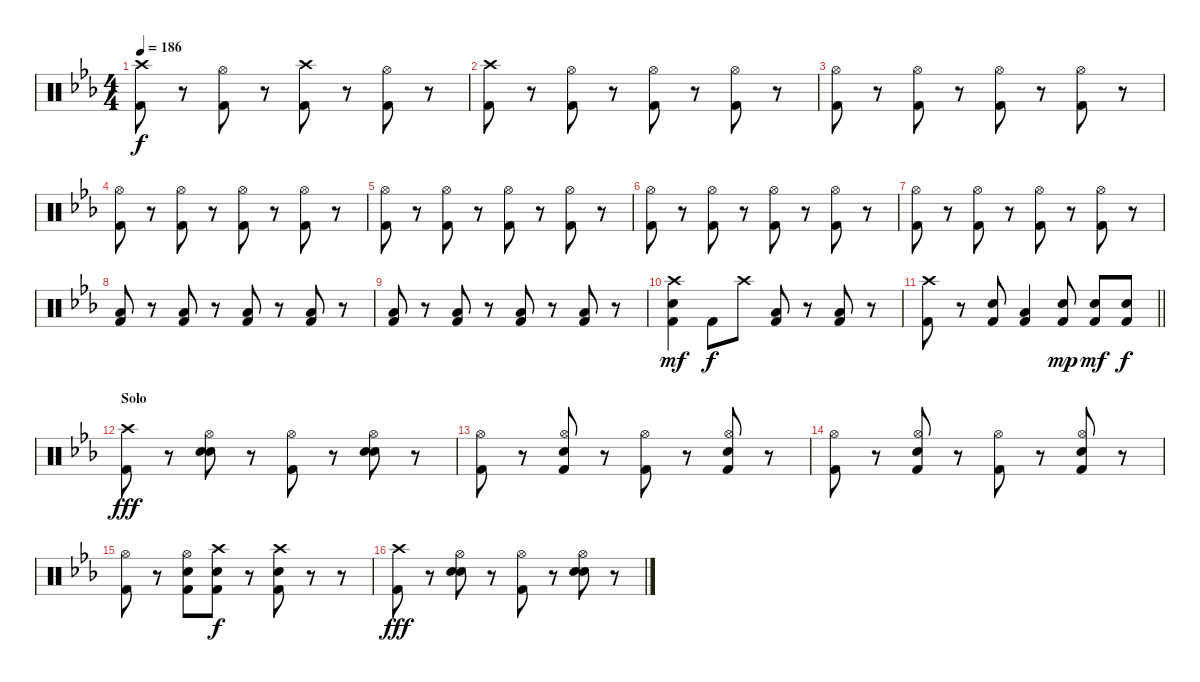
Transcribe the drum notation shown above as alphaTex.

\track "" {instrument percussion}
\staff {score}
\articulation defaults
\ts (4 4)
\tempo 186
\clef neutral
\ks eb
("Crash high (hit)" "Kick (hit) 2").8{dy f} r.8 ("Hi-Hat (open)" "Kick (hit) 2").8 r.8 ("Crash high (hit)" "Kick (hit) 2").8 r.8 ("Hi-Hat (open)" "Kick (hit) 2").8 r.8 |
("Crash high (hit)" "Kick (hit) 2").8 r.8 ("Hi-Hat (open)" "Kick (hit) 2").8 r.8 ("Hi-Hat (open)" "Kick (hit) 2").8 r.8 ("Hi-Hat (open)" "Kick (hit) 2").8 r.8 |
("Hi-Hat (open)" "Kick (hit) 2").8 r.8 ("Hi-Hat (open)" "Kick (hit) 2").8 r.8 ("Hi-Hat (open)" "Kick (hit) 2").8 r.8 ("Hi-Hat (open)" "Kick (hit) 2").8 r.8 |
("Hi-Hat (open)" "Kick (hit) 2").8 r.8 ("Hi-Hat (open)" "Kick (hit) 2").8 r.8 ("Hi-Hat (open)" "Kick (hit) 2").8 r.8 ("Hi-Hat (open)" "Kick (hit) 2").8 r.8 |
("Hi-Hat (open)" "Kick (hit) 2").8 r.8 ("Hi-Hat (open)" "Kick (hit) 2").8 r.8 ("Hi-Hat (open)" "Kick (hit) 2").8 r.8 ("Hi-Hat (open)" "Kick (hit) 2").8 r.8 |
("Hi-Hat (open)" "Kick (hit) 2").8 r.8 ("Hi-Hat (open)" "Kick (hit) 2").8 r.8 ("Hi-Hat (open)" "Kick (hit) 2").8 r.8 ("Hi-Hat (open)" "Kick (hit) 2").8 r.8 |
("Hi-Hat (open)" "Kick (hit) 2").8 r.8 ("Hi-Hat (open)" "Kick (hit) 2").8 r.8 ("Hi-Hat (open)" "Kick (hit) 2").8 r.8 ("Hi-Hat (open)" "Kick (hit) 2").8 r.8 |
("Low Tom (hit)" "Kick (hit) 2").8 r.8 ("Low Tom (hit)" "Kick (hit) 2").8 r.8 ("Low Tom (hit)" "Kick (hit) 2").8 r.8 ("Low Tom (hit)" "Kick (hit) 2").8 r.8 |
("Low Tom (hit)" "Kick (hit) 2").8 r.8 ("Low Tom (hit)" "Kick (hit) 2").8 r.8 ("Low Tom (hit)" "Kick (hit) 2").8 r.8 ("Low Tom (hit)" "Kick (hit) 2").8 r.8 |
("Crash high (hit)" "Snare (hit) 2" "Kick (hit) 2").4{dy mf} "Kick (hit) 2".8{dy f} "Crash high (hit)".8 ("Low Tom (hit)" "Kick (hit) 2").8 r.8 ("Low Tom (hit)" "Kick (hit) 2").8 r.8 |
\barLineRight lightlight
("Crash high (hit)" "Kick (hit) 2").8 r.8 ("Snare (hit) 2" "Kick (hit) 2").8 ("Low Tom (hit)" "Kick (hit) 2").4 ("Snare (hit) 2" "Kick (hit) 2").8{dy mp} ("Snare (hit) 2" "Kick (hit) 2").8{dy mf} ("Snare (hit) 2" "Kick (hit) 2").8{dy f} |
\section ("" "Solo")
("Crash high (hit)" "Kick (hit) 2").8{dy fff} r.8 ("Hi-Hat (open)" "Snare (hit) 2" "Snare (hit) 2").8 r.8 ("Hi-Hat (open)" "Kick (hit) 2").8 r.8 ("Hi-Hat (open)" "Snare (hit) 2" "Snare (hit) 2").8 r.8 |
("Hi-Hat (open)" "Kick (hit) 2").8 r.8 ("Hi-Hat (open)" "Snare (hit) 2" "Kick (hit) 2").8 r.8 ("Hi-Hat (open)" "Kick (hit) 2").8 r.8 ("Hi-Hat (open)" "Snare (hit) 2" "Kick (hit) 2").8 r.8 |
("Hi-Hat (open)" "Kick (hit) 2").8 r.8 ("Hi-Hat (open)" "Snare (hit) 2" "Kick (hit) 2").8 r.8 ("Hi-Hat (open)" "Kick (hit) 2").8 r.8 ("Hi-Hat (open)" "Snare (hit) 2" "Kick (hit) 2").8 r.8 |
("Hi-Hat (open)" "Kick (hit) 2").8 r.8 ("Hi-Hat (open)" "Snare (hit) 2" "Kick (hit) 2").8 ("Crash high (hit)" "Snare (hit) 2" "Kick (hit) 2").8{dy f} r.8 ("Crash high (hit)" "Snare (hit) 2" "Kick (hit) 2").8 r.8 r.8 |
("Crash high (hit)" "Kick (hit) 2").8{dy fff} r.8 ("Hi-Hat (open)" "Snare (hit) 2" "Snare (hit) 2").8 r.8 ("Hi-Hat (open)" "Kick (hit) 2").8 r.8 ("Hi-Hat (open)" "Snare (hit) 2" "Snare (hit) 2").8 r.8
